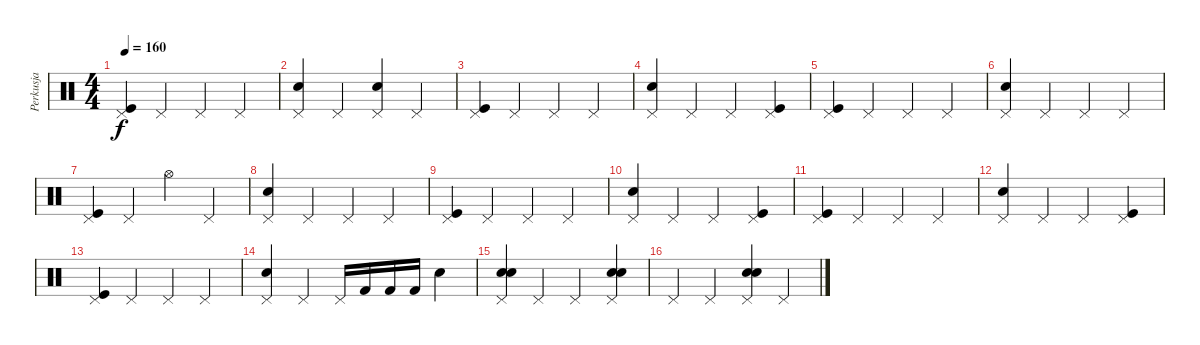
\track ("Perkusja" "Perkusja") {instrument percussion}
\staff {score}
\articulation defaults
\ts (4 4)
\tempo 160
\clef neutral
\ks c
("Kick (hit)" "Pedal Hi-Hat (hit)").4{dy f} "Pedal Hi-Hat (hit)".4 "Pedal Hi-Hat (hit)".4 "Pedal Hi-Hat (hit)".4 |
("Snare (hit) 2" "Pedal Hi-Hat (hit)").4 "Pedal Hi-Hat (hit)".4 ("Electric Snare (hit)" "Pedal Hi-Hat (hit)").4 "Pedal Hi-Hat (hit)".4 |
("Kick (hit)" "Pedal Hi-Hat (hit)").4 "Pedal Hi-Hat (hit)".4 "Pedal Hi-Hat (hit)".4 "Pedal Hi-Hat (hit)".4 |
("Snare (hit) 2" "Pedal Hi-Hat (hit)").4 "Pedal Hi-Hat (hit)".4 "Pedal Hi-Hat (hit)".4 ("Kick (hit)" "Pedal Hi-Hat (hit)").4 |
("Kick (hit)" "Pedal Hi-Hat (hit)").4 "Pedal Hi-Hat (hit)".4 "Pedal Hi-Hat (hit)".4 "Pedal Hi-Hat (hit)".4 |
("Snare (hit) 2" "Pedal Hi-Hat (hit)").4 "Pedal Hi-Hat (hit)".4 "Pedal Hi-Hat (hit)".4 "Pedal Hi-Hat (hit)".4 |
("Kick (hit)" "Pedal Hi-Hat (hit)").4 "Pedal Hi-Hat (hit)".4 "Hi-Hat (open)".4 "Pedal Hi-Hat (hit)".4 |
("Snare (hit) 2" "Pedal Hi-Hat (hit)").4 "Pedal Hi-Hat (hit)".4 "Pedal Hi-Hat (hit)".4 "Pedal Hi-Hat (hit)".4 |
("Kick (hit)" "Pedal Hi-Hat (hit)").4 "Pedal Hi-Hat (hit)".4 "Pedal Hi-Hat (hit)".4 "Pedal Hi-Hat (hit)".4 |
("Snare (hit) 2" "Pedal Hi-Hat (hit)").4 "Pedal Hi-Hat (hit)".4 "Pedal Hi-Hat (hit)".4 ("Kick (hit)" "Pedal Hi-Hat (hit)").4 |
("Kick (hit)" "Pedal Hi-Hat (hit)").4 "Pedal Hi-Hat (hit)".4 "Pedal Hi-Hat (hit)".4 "Pedal Hi-Hat (hit)".4 |
("Snare (hit) 2" "Pedal Hi-Hat (hit)").4 "Pedal Hi-Hat (hit)".4 "Pedal Hi-Hat (hit)".4 ("Kick (hit)" "Pedal Hi-Hat (hit)").4 |
("Kick (hit)" "Pedal Hi-Hat (hit)").4 "Pedal Hi-Hat (hit)".4 "Pedal Hi-Hat (hit)".4 "Pedal Hi-Hat (hit)".4 |
("Snare (hit) 2" "Pedal Hi-Hat (hit)").4 "Pedal Hi-Hat (hit)".4 "Pedal Hi-Hat (hit)".16 "Kick (hit) 2".16 "Kick (hit) 2".16 "Kick (hit) 2".16 "Electric Snare (hit)".4 |
("Snare (hit) 2" "Electric Snare (hit)" "Pedal Hi-Hat (hit)").4 "Pedal Hi-Hat (hit)".4 "Pedal Hi-Hat (hit)".4 ("Snare (hit) 2" "Electric Snare (hit)" "Pedal Hi-Hat (hit)").4 |
"Pedal Hi-Hat (hit)".4 "Pedal Hi-Hat (hit)".4 ("Snare (hit) 2" "Electric Snare (hit)" "Pedal Hi-Hat (hit)").4 "Pedal Hi-Hat (hit)".4
